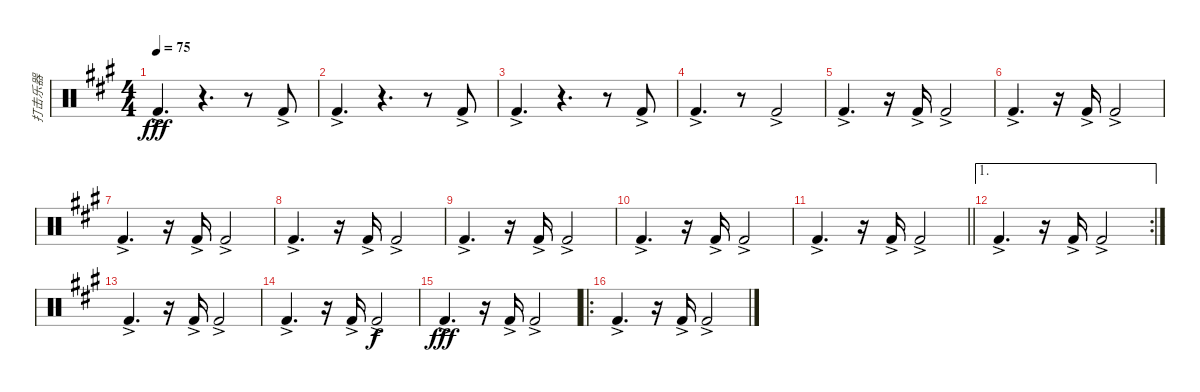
\track ("打击乐器" "打击乐器") {instrument percussion}
\staff {score}
\articulation defaults
\ts (4 4)
\tempo 75
\clef neutral
\ks a "Kick (hit) 2"{ac}.4{d dy fff}
r.4{d} r.8 "Kick (hit) 2"{ac}.8 |
"Kick (hit) 2"{ac}.4{d} r.4{d} r.8 "Kick (hit) 2"{ac}.8 |
"Kick (hit) 2"{ac}.4{d} r.4{d} r.8 "Kick (hit) 2"{ac}.8 |
"Kick (hit) 2"{ac}.4{d} r.8 "Kick (hit) 2"{ac}.2 |
"Kick (hit) 2"{ac}.4{d} r.16 "Kick (hit) 2"{ac}.16 "Kick (hit) 2"{ac}.2 |
"Kick (hit) 2"{ac}.4{d} r.16 "Kick (hit) 2"{ac}.16 "Kick (hit) 2"{ac}.2 |
"Kick (hit) 2"{ac}.4{d} r.16 "Kick (hit) 2"{ac}.16 "Kick (hit) 2"{ac}.2 |
"Kick (hit) 2"{ac}.4{d} r.16 "Kick (hit) 2"{ac}.16 "Kick (hit) 2"{ac}.2 |
"Kick (hit) 2"{ac}.4{d} r.16 "Kick (hit) 2"{ac}.16 "Kick (hit) 2"{ac}.2 |
"Kick (hit) 2"{ac}.4{d} r.16 "Kick (hit) 2"{ac}.16 "Kick (hit) 2"{ac}.2 |
\barLineRight lightlight "Kick (hit) 2"{ac}.4{d}
r.16 "Kick (hit) 2"{ac}.16 "Kick (hit) 2"{ac}.2 |
\ae 1
\rc 2 "Kick (hit) 2"{ac}.4{d}
r.16 "Kick (hit) 2"{ac}.16 "Kick (hit) 2"{ac}.2 |
"Kick (hit) 2"{ac}.4{d} r.16 "Kick (hit) 2"{ac}.16 "Kick (hit) 2"{ac}.2 |
"Kick (hit) 2"{ac}.4{d} r.16 "Kick (hit) 2"{ac}.16 "Kick (hit) 2"{ac}.2{dy f} |
"Kick (hit) 2"{ac}.4{d dy fff} r.16 "Kick (hit) 2"{ac}.16 "Kick (hit) 2"{ac}.2 |
\ro "Kick (hit) 2"{ac}.4{d}
r.16 "Kick (hit) 2"{ac}.16 "Kick (hit) 2"{ac}.2
